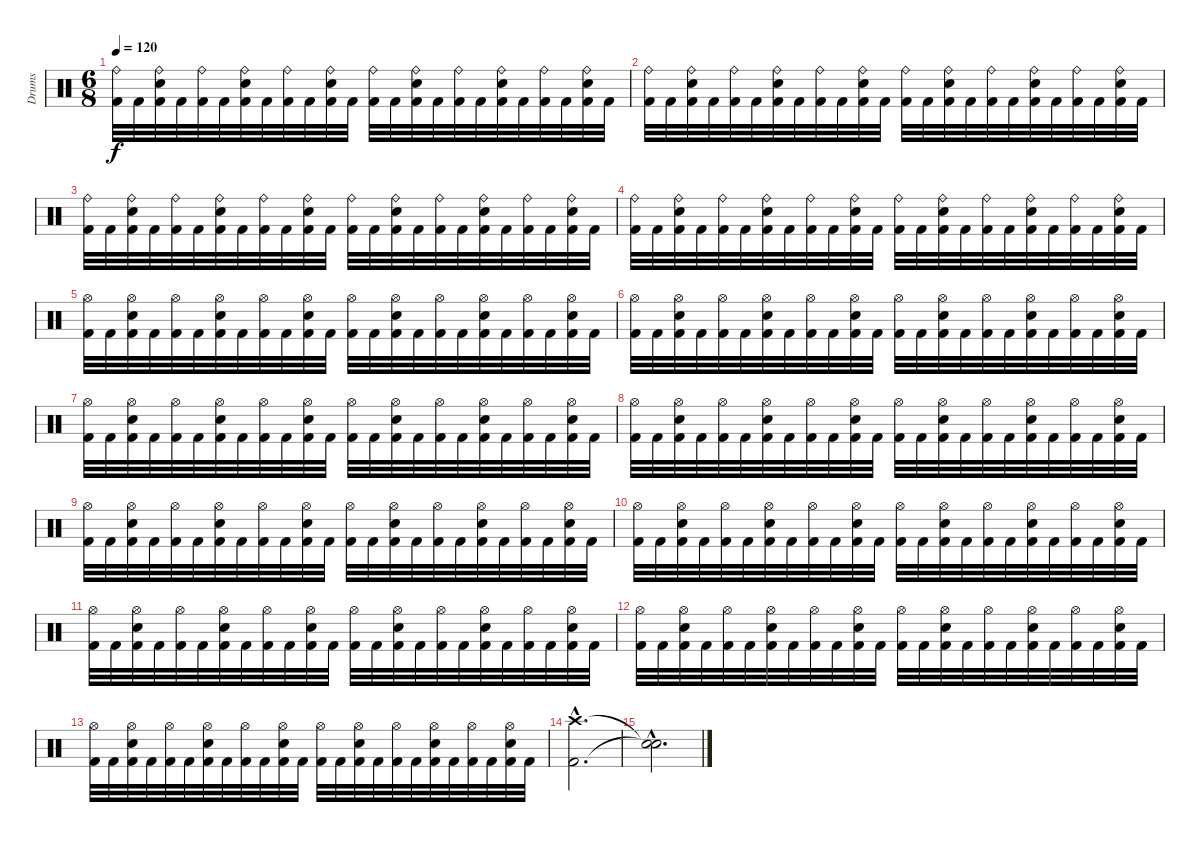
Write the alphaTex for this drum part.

\track ("Drums" "Drums") {instrument percussion}
\staff {score}
\articulation defaults
\ts (6 8)
\tempo 120
\clef neutral
\ks c
("Ride (bell)" "Kick (hit) 2").32{dy f} "Kick (hit) 2".32 ("Ride (bell)" "Electric Snare (hit)" "Kick (hit) 2").32 "Kick (hit) 2".32 ("Ride (bell)" "Kick (hit) 2").32 "Kick (hit) 2".32 ("Ride (bell)" "Electric Snare (hit)" "Kick (hit) 2").32 "Kick (hit) 2".32 ("Ride (bell)" "Kick (hit) 2").32 "Kick (hit) 2".32 ("Ride (bell)" "Electric Snare (hit)" "Kick (hit) 2").32 "Kick (hit) 2".32 ("Ride (bell)" "Kick (hit) 2").32 "Kick (hit) 2".32 ("Ride (bell)" "Electric Snare (hit)" "Kick (hit) 2").32 "Kick (hit) 2".32 ("Ride (bell)" "Kick (hit) 2").32 "Kick (hit) 2".32 ("Ride (bell)" "Electric Snare (hit)" "Kick (hit) 2").32 "Kick (hit) 2".32 ("Ride (bell)" "Kick (hit) 2").32 "Kick (hit) 2".32 ("Ride (bell)" "Electric Snare (hit)" "Kick (hit) 2").32 "Kick (hit) 2".32 |
("Ride (bell)" "Kick (hit) 2").32 "Kick (hit) 2".32 ("Ride (bell)" "Electric Snare (hit)" "Kick (hit) 2").32 "Kick (hit) 2".32 ("Ride (bell)" "Kick (hit) 2").32 "Kick (hit) 2".32 ("Ride (bell)" "Electric Snare (hit)" "Kick (hit) 2").32 "Kick (hit) 2".32 ("Ride (bell)" "Kick (hit) 2").32 "Kick (hit) 2".32 ("Ride (bell)" "Electric Snare (hit)" "Kick (hit) 2").32 "Kick (hit) 2".32 ("Ride (bell)" "Kick (hit) 2").32 "Kick (hit) 2".32 ("Ride (bell)" "Electric Snare (hit)" "Kick (hit) 2").32 "Kick (hit) 2".32 ("Ride (bell)" "Kick (hit) 2").32 "Kick (hit) 2".32 ("Ride (bell)" "Electric Snare (hit)" "Kick (hit) 2").32 "Kick (hit) 2".32 ("Ride (bell)" "Kick (hit) 2").32 "Kick (hit) 2".32 ("Ride (bell)" "Electric Snare (hit)" "Kick (hit) 2").32 "Kick (hit) 2".32 |
("Ride (bell)" "Kick (hit) 2").32 "Kick (hit) 2".32 ("Ride (bell)" "Electric Snare (hit)" "Kick (hit) 2").32 "Kick (hit) 2".32 ("Ride (bell)" "Kick (hit) 2").32 "Kick (hit) 2".32 ("Ride (bell)" "Electric Snare (hit)" "Kick (hit) 2").32 "Kick (hit) 2".32 ("Ride (bell)" "Kick (hit) 2").32 "Kick (hit) 2".32 ("Ride (bell)" "Electric Snare (hit)" "Kick (hit) 2").32 "Kick (hit) 2".32 ("Ride (bell)" "Kick (hit) 2").32 "Kick (hit) 2".32 ("Ride (bell)" "Electric Snare (hit)" "Kick (hit) 2").32 "Kick (hit) 2".32 ("Ride (bell)" "Kick (hit) 2").32 "Kick (hit) 2".32 ("Ride (bell)" "Electric Snare (hit)" "Kick (hit) 2").32 "Kick (hit) 2".32 ("Ride (bell)" "Kick (hit) 2").32 "Kick (hit) 2".32 ("Ride (bell)" "Electric Snare (hit)" "Kick (hit) 2").32 "Kick (hit) 2".32 |
("Ride (bell)" "Kick (hit) 2").32 "Kick (hit) 2".32 ("Ride (bell)" "Electric Snare (hit)" "Kick (hit) 2").32 "Kick (hit) 2".32 ("Ride (bell)" "Kick (hit) 2").32 "Kick (hit) 2".32 ("Ride (bell)" "Electric Snare (hit)" "Kick (hit) 2").32 "Kick (hit) 2".32 ("Ride (bell)" "Kick (hit) 2").32 "Kick (hit) 2".32 ("Ride (bell)" "Electric Snare (hit)" "Kick (hit) 2").32 "Kick (hit) 2".32 ("Ride (bell)" "Kick (hit) 2").32 "Kick (hit) 2".32 ("Ride (bell)" "Electric Snare (hit)" "Kick (hit) 2").32 "Kick (hit) 2".32 ("Ride (bell)" "Kick (hit) 2").32 "Kick (hit) 2".32 ("Ride (bell)" "Electric Snare (hit)" "Kick (hit) 2").32 "Kick (hit) 2".32 ("Ride (bell)" "Kick (hit) 2").32 "Kick (hit) 2".32 ("Ride (bell)" "Electric Snare (hit)" "Kick (hit) 2").32 "Kick (hit) 2".32 |
("Hi-Hat (open)" "Kick (hit) 2").32 "Kick (hit) 2".32 ("Hi-Hat (open)" "Electric Snare (hit)" "Kick (hit) 2").32 "Kick (hit) 2".32 ("Hi-Hat (open)" "Kick (hit) 2").32 "Kick (hit) 2".32 ("Hi-Hat (open)" "Electric Snare (hit)" "Kick (hit) 2").32 "Kick (hit) 2".32 ("Hi-Hat (open)" "Kick (hit) 2").32 "Kick (hit) 2".32 ("Hi-Hat (open)" "Electric Snare (hit)" "Kick (hit) 2").32 "Kick (hit) 2".32 ("Hi-Hat (open)" "Kick (hit) 2").32 "Kick (hit) 2".32 ("Hi-Hat (open)" "Electric Snare (hit)" "Kick (hit) 2").32 "Kick (hit) 2".32 ("Hi-Hat (open)" "Kick (hit) 2").32 "Kick (hit) 2".32 ("Hi-Hat (open)" "Electric Snare (hit)" "Kick (hit) 2").32 "Kick (hit) 2".32 ("Hi-Hat (open)" "Kick (hit) 2").32 "Kick (hit) 2".32 ("Hi-Hat (open)" "Electric Snare (hit)" "Kick (hit) 2").32 "Kick (hit) 2".32 |
("Hi-Hat (open)" "Kick (hit) 2").32 "Kick (hit) 2".32 ("Hi-Hat (open)" "Electric Snare (hit)" "Kick (hit) 2").32 "Kick (hit) 2".32 ("Hi-Hat (open)" "Kick (hit) 2").32 "Kick (hit) 2".32 ("Hi-Hat (open)" "Electric Snare (hit)" "Kick (hit) 2").32 "Kick (hit) 2".32 ("Hi-Hat (open)" "Kick (hit) 2").32 "Kick (hit) 2".32 ("Hi-Hat (open)" "Electric Snare (hit)" "Kick (hit) 2").32 "Kick (hit) 2".32 ("Hi-Hat (open)" "Kick (hit) 2").32 "Kick (hit) 2".32 ("Hi-Hat (open)" "Electric Snare (hit)" "Kick (hit) 2").32 "Kick (hit) 2".32 ("Hi-Hat (open)" "Kick (hit) 2").32 "Kick (hit) 2".32 ("Hi-Hat (open)" "Electric Snare (hit)" "Kick (hit) 2").32 "Kick (hit) 2".32 ("Hi-Hat (open)" "Kick (hit) 2").32 "Kick (hit) 2".32 ("Hi-Hat (open)" "Electric Snare (hit)" "Kick (hit) 2").32 "Kick (hit) 2".32 |
("Hi-Hat (open)" "Kick (hit) 2").32 "Kick (hit) 2".32 ("Hi-Hat (open)" "Electric Snare (hit)" "Kick (hit) 2").32 "Kick (hit) 2".32 ("Hi-Hat (open)" "Kick (hit) 2").32 "Kick (hit) 2".32 ("Hi-Hat (open)" "Electric Snare (hit)" "Kick (hit) 2").32 "Kick (hit) 2".32 ("Hi-Hat (open)" "Kick (hit) 2").32 "Kick (hit) 2".32 ("Hi-Hat (open)" "Electric Snare (hit)" "Kick (hit) 2").32 "Kick (hit) 2".32 ("Hi-Hat (open)" "Kick (hit) 2").32 "Kick (hit) 2".32 ("Hi-Hat (open)" "Electric Snare (hit)" "Kick (hit) 2").32 "Kick (hit) 2".32 ("Hi-Hat (open)" "Kick (hit) 2").32 "Kick (hit) 2".32 ("Hi-Hat (open)" "Electric Snare (hit)" "Kick (hit) 2").32 "Kick (hit) 2".32 ("Hi-Hat (open)" "Kick (hit) 2").32 "Kick (hit) 2".32 ("Hi-Hat (open)" "Electric Snare (hit)" "Kick (hit) 2").32 "Kick (hit) 2".32 |
("Hi-Hat (open)" "Kick (hit) 2").32 "Kick (hit) 2".32 ("Hi-Hat (open)" "Electric Snare (hit)" "Kick (hit) 2").32 "Kick (hit) 2".32 ("Hi-Hat (open)" "Kick (hit) 2").32 "Kick (hit) 2".32 ("Hi-Hat (open)" "Electric Snare (hit)" "Kick (hit) 2").32 "Kick (hit) 2".32 ("Hi-Hat (open)" "Kick (hit) 2").32 "Kick (hit) 2".32 ("Hi-Hat (open)" "Electric Snare (hit)" "Kick (hit) 2").32 "Kick (hit) 2".32 ("Hi-Hat (open)" "Kick (hit) 2").32 "Kick (hit) 2".32 ("Hi-Hat (open)" "Electric Snare (hit)" "Kick (hit) 2").32 "Kick (hit) 2".32 ("Hi-Hat (open)" "Kick (hit) 2").32 "Kick (hit) 2".32 ("Hi-Hat (open)" "Electric Snare (hit)" "Kick (hit) 2").32 "Kick (hit) 2".32 ("Hi-Hat (open)" "Kick (hit) 2").32 "Kick (hit) 2".32 ("Hi-Hat (open)" "Electric Snare (hit)" "Kick (hit) 2").32 "Kick (hit) 2".32 |
("Hi-Hat (open)" "Kick (hit) 2").32 "Kick (hit) 2".32 ("Hi-Hat (open)" "Electric Snare (hit)" "Kick (hit) 2").32 "Kick (hit) 2".32 ("Hi-Hat (open)" "Kick (hit) 2").32 "Kick (hit) 2".32 ("Hi-Hat (open)" "Electric Snare (hit)" "Kick (hit) 2").32 "Kick (hit) 2".32 ("Hi-Hat (open)" "Kick (hit) 2").32 "Kick (hit) 2".32 ("Hi-Hat (open)" "Electric Snare (hit)" "Kick (hit) 2").32 "Kick (hit) 2".32 ("Hi-Hat (open)" "Kick (hit) 2").32 "Kick (hit) 2".32 ("Hi-Hat (open)" "Electric Snare (hit)" "Kick (hit) 2").32 "Kick (hit) 2".32 ("Hi-Hat (open)" "Kick (hit) 2").32 "Kick (hit) 2".32 ("Hi-Hat (open)" "Electric Snare (hit)" "Kick (hit) 2").32 "Kick (hit) 2".32 ("Hi-Hat (open)" "Kick (hit) 2").32 "Kick (hit) 2".32 ("Hi-Hat (open)" "Electric Snare (hit)" "Kick (hit) 2").32 "Kick (hit) 2".32 |
("Hi-Hat (open)" "Kick (hit) 2").32 "Kick (hit) 2".32 ("Hi-Hat (open)" "Electric Snare (hit)" "Kick (hit) 2").32 "Kick (hit) 2".32 ("Hi-Hat (open)" "Kick (hit) 2").32 "Kick (hit) 2".32 ("Hi-Hat (open)" "Electric Snare (hit)" "Kick (hit) 2").32 "Kick (hit) 2".32 ("Hi-Hat (open)" "Kick (hit) 2").32 "Kick (hit) 2".32 ("Hi-Hat (open)" "Electric Snare (hit)" "Kick (hit) 2").32 "Kick (hit) 2".32 ("Hi-Hat (open)" "Kick (hit) 2").32 "Kick (hit) 2".32 ("Hi-Hat (open)" "Electric Snare (hit)" "Kick (hit) 2").32 "Kick (hit) 2".32 ("Hi-Hat (open)" "Kick (hit) 2").32 "Kick (hit) 2".32 ("Hi-Hat (open)" "Electric Snare (hit)" "Kick (hit) 2").32 "Kick (hit) 2".32 ("Hi-Hat (open)" "Kick (hit) 2").32 "Kick (hit) 2".32 ("Hi-Hat (open)" "Electric Snare (hit)" "Kick (hit) 2").32 "Kick (hit) 2".32 |
("Hi-Hat (open)" "Kick (hit) 2").32 "Kick (hit) 2".32 ("Hi-Hat (open)" "Electric Snare (hit)" "Kick (hit) 2").32 "Kick (hit) 2".32 ("Hi-Hat (open)" "Kick (hit) 2").32 "Kick (hit) 2".32 ("Hi-Hat (open)" "Electric Snare (hit)" "Kick (hit) 2").32 "Kick (hit) 2".32 ("Hi-Hat (open)" "Kick (hit) 2").32 "Kick (hit) 2".32 ("Hi-Hat (open)" "Electric Snare (hit)" "Kick (hit) 2").32 "Kick (hit) 2".32 ("Hi-Hat (open)" "Kick (hit) 2").32 "Kick (hit) 2".32 ("Hi-Hat (open)" "Electric Snare (hit)" "Kick (hit) 2").32 "Kick (hit) 2".32 ("Hi-Hat (open)" "Kick (hit) 2").32 "Kick (hit) 2".32 ("Hi-Hat (open)" "Electric Snare (hit)" "Kick (hit) 2").32 "Kick (hit) 2".32 ("Hi-Hat (open)" "Kick (hit) 2").32 "Kick (hit) 2".32 ("Hi-Hat (open)" "Electric Snare (hit)" "Kick (hit) 2").32 "Kick (hit) 2".32 |
("Hi-Hat (open)" "Kick (hit) 2").32 "Kick (hit) 2".32 ("Hi-Hat (open)" "Electric Snare (hit)" "Kick (hit) 2").32 "Kick (hit) 2".32 ("Hi-Hat (open)" "Kick (hit) 2").32 "Kick (hit) 2".32 ("Hi-Hat (open)" "Electric Snare (hit)" "Kick (hit) 2").32 "Kick (hit) 2".32 ("Hi-Hat (open)" "Kick (hit) 2").32 "Kick (hit) 2".32 ("Hi-Hat (open)" "Electric Snare (hit)" "Kick (hit) 2").32 "Kick (hit) 2".32 ("Hi-Hat (open)" "Kick (hit) 2").32 "Kick (hit) 2".32 ("Hi-Hat (open)" "Electric Snare (hit)" "Kick (hit) 2").32 "Kick (hit) 2".32 ("Hi-Hat (open)" "Kick (hit) 2").32 "Kick (hit) 2".32 ("Hi-Hat (open)" "Electric Snare (hit)" "Kick (hit) 2").32 "Kick (hit) 2".32 ("Hi-Hat (open)" "Kick (hit) 2").32 "Kick (hit) 2".32 ("Hi-Hat (open)" "Electric Snare (hit)" "Kick (hit) 2").32 "Kick (hit) 2".32 |
("Hi-Hat (open)" "Kick (hit) 2").32 "Kick (hit) 2".32 ("Hi-Hat (open)" "Electric Snare (hit)" "Kick (hit) 2").32 "Kick (hit) 2".32 ("Hi-Hat (open)" "Kick (hit) 2").32 "Kick (hit) 2".32 ("Hi-Hat (open)" "Electric Snare (hit)" "Kick (hit) 2").32 "Kick (hit) 2".32 ("Hi-Hat (open)" "Kick (hit) 2").32 "Kick (hit) 2".32 ("Hi-Hat (open)" "Electric Snare (hit)" "Kick (hit) 2").32 "Kick (hit) 2".32 ("Hi-Hat (open)" "Kick (hit) 2").32 "Kick (hit) 2".32 ("Hi-Hat (open)" "Electric Snare (hit)" "Kick (hit) 2").32 "Kick (hit) 2".32 ("Hi-Hat (open)" "Kick (hit) 2").32 "Kick (hit) 2".32 ("Hi-Hat (open)" "Electric Snare (hit)" "Kick (hit) 2").32 "Kick (hit) 2".32 ("Hi-Hat (open)" "Kick (hit) 2").32 "Kick (hit) 2".32 ("Hi-Hat (open)" "Electric Snare (hit)" "Kick (hit) 2").32 "Kick (hit) 2".32 |
("Crash high (hit)"{hac} "Kick (hit) 2"{hac}).2{d} |
("Snare (hit)"{hac t} "Snare (hit)"{hac t}).2{d}
